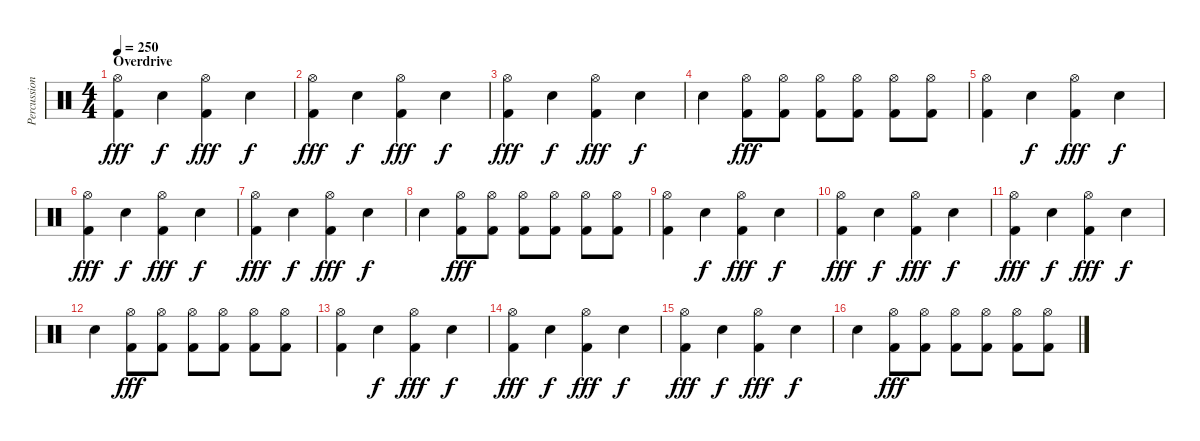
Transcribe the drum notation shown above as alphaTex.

\track ("Percussions" "Percussion") {instrument percussion}
\staff {score}
\articulation defaults
\ts (4 4)
\section ("" "Overdrive")
\tempo 250
\clef neutral
\ks c
("Kick (hit) 2" "Hi-Hat (open)").4{dy fff} "Snare (hit) 2".4{dy f} ("Kick (hit) 2" "Hi-Hat (open)").4{dy fff} "Snare (hit) 2".4{dy f} |
("Kick (hit) 2" "Hi-Hat (open)").4{dy fff} "Snare (hit) 2".4{dy f} ("Kick (hit) 2" "Hi-Hat (open)").4{dy fff} "Snare (hit) 2".4{dy f} |
("Kick (hit) 2" "Hi-Hat (open)").4{dy fff} "Snare (hit) 2".4{dy f} ("Kick (hit) 2" "Hi-Hat (open)").4{dy fff} "Snare (hit) 2".4{dy f} |
"Snare (hit) 2".4 ("Kick (hit) 2" "Hi-Hat (open)").8{dy fff} ("Kick (hit) 2" "Hi-Hat (open)").8 ("Kick (hit) 2" "Hi-Hat (open)").8 ("Kick (hit) 2" "Hi-Hat (open)").8 ("Kick (hit) 2" "Hi-Hat (open)").8 ("Kick (hit) 2" "Hi-Hat (open)").8 |
("Kick (hit) 2" "Hi-Hat (open)").4 "Snare (hit) 2".4{dy f} ("Kick (hit) 2" "Hi-Hat (open)").4{dy fff} "Snare (hit) 2".4{dy f} |
("Kick (hit) 2" "Hi-Hat (open)").4{dy fff} "Snare (hit) 2".4{dy f} ("Kick (hit) 2" "Hi-Hat (open)").4{dy fff} "Snare (hit) 2".4{dy f} |
("Kick (hit) 2" "Hi-Hat (open)").4{dy fff} "Snare (hit) 2".4{dy f} ("Kick (hit) 2" "Hi-Hat (open)").4{dy fff} "Snare (hit) 2".4{dy f} |
"Snare (hit) 2".4 ("Kick (hit) 2" "Hi-Hat (open)").8{dy fff} ("Kick (hit) 2" "Hi-Hat (open)").8 ("Kick (hit) 2" "Hi-Hat (open)").8 ("Kick (hit) 2" "Hi-Hat (open)").8 ("Kick (hit) 2" "Hi-Hat (open)").8 ("Kick (hit) 2" "Hi-Hat (open)").8 |
("Kick (hit) 2" "Hi-Hat (open)").4 "Snare (hit) 2".4{dy f} ("Kick (hit) 2" "Hi-Hat (open)").4{dy fff} "Snare (hit) 2".4{dy f} |
("Kick (hit) 2" "Hi-Hat (open)").4{dy fff} "Snare (hit) 2".4{dy f} ("Kick (hit) 2" "Hi-Hat (open)").4{dy fff} "Snare (hit) 2".4{dy f} |
("Kick (hit) 2" "Hi-Hat (open)").4{dy fff} "Snare (hit) 2".4{dy f} ("Kick (hit) 2" "Hi-Hat (open)").4{dy fff} "Snare (hit) 2".4{dy f} |
"Snare (hit) 2".4 ("Kick (hit) 2" "Hi-Hat (open)").8{dy fff} ("Kick (hit) 2" "Hi-Hat (open)").8 ("Kick (hit) 2" "Hi-Hat (open)").8 ("Kick (hit) 2" "Hi-Hat (open)").8 ("Kick (hit) 2" "Hi-Hat (open)").8 ("Kick (hit) 2" "Hi-Hat (open)").8 |
("Kick (hit) 2" "Hi-Hat (open)").4 "Snare (hit) 2".4{dy f} ("Kick (hit) 2" "Hi-Hat (open)").4{dy fff} "Snare (hit) 2".4{dy f} |
("Kick (hit) 2" "Hi-Hat (open)").4{dy fff} "Snare (hit) 2".4{dy f} ("Kick (hit) 2" "Hi-Hat (open)").4{dy fff} "Snare (hit) 2".4{dy f} |
("Kick (hit) 2" "Hi-Hat (open)").4{dy fff} "Snare (hit) 2".4{dy f} ("Kick (hit) 2" "Hi-Hat (open)").4{dy fff} "Snare (hit) 2".4{dy f} |
"Snare (hit) 2".4 ("Kick (hit) 2" "Hi-Hat (open)").8{dy fff} ("Kick (hit) 2" "Hi-Hat (open)").8 ("Kick (hit) 2" "Hi-Hat (open)").8 ("Kick (hit) 2" "Hi-Hat (open)").8 ("Kick (hit) 2" "Hi-Hat (open)").8 ("Kick (hit) 2" "Hi-Hat (open)").8
